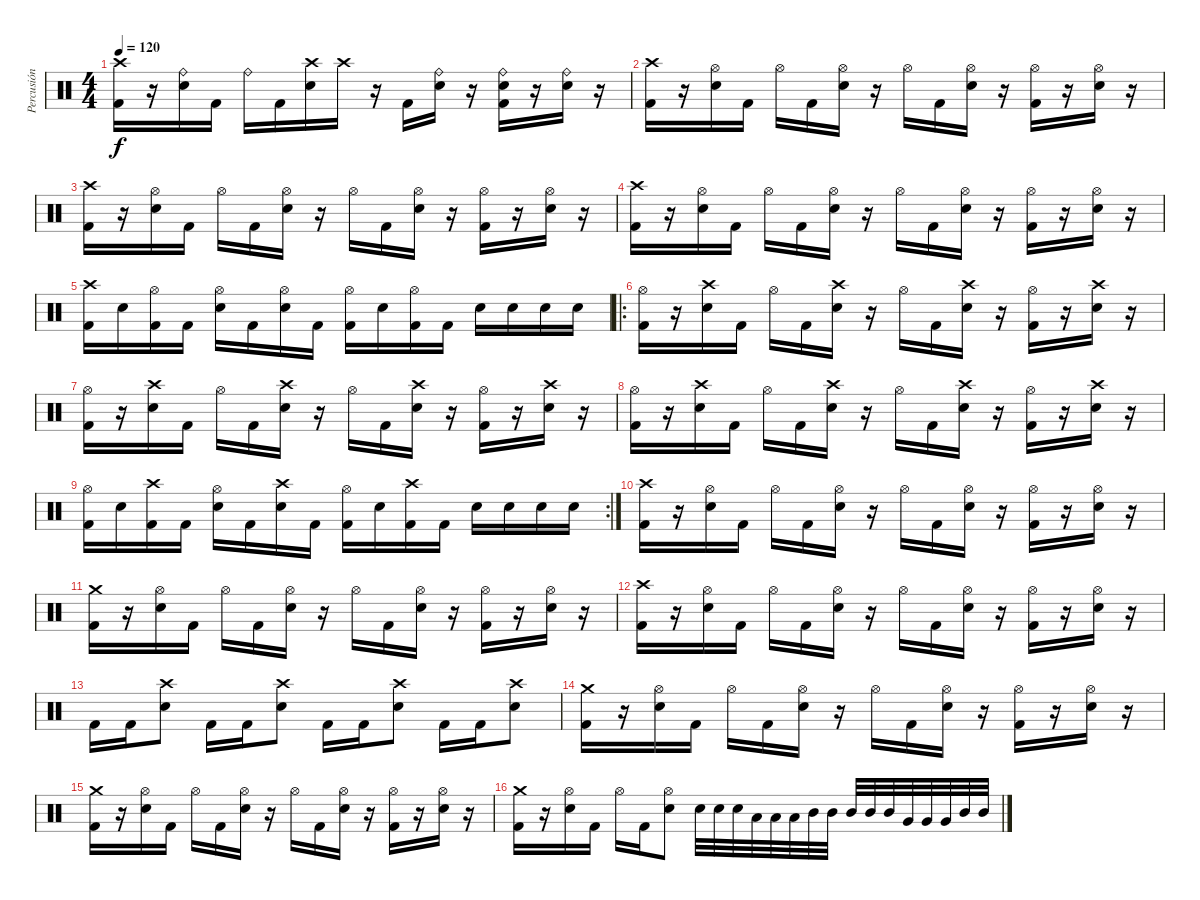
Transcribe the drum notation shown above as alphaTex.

\track ("Percusión" "Percusión") {instrument percussion}
\staff {score}
\articulation defaults
\ts (4 4)
\tempo 120
\clef neutral
\ks c
("Crash high (hit)" "Kick (hit) 2").16{dy f} r.16 ("Ride (bell)" "Electric Snare (hit)").16 "Kick (hit) 2".16 "Ride (bell)".16 "Kick (hit) 2".16 ("Crash high (hit)" "Electric Snare (hit)").16 "Crash high (hit)".16 r.16 "Kick (hit) 2".16 ("Ride (bell)" "Electric Snare (hit)").16 r.16 ("Ride (bell)" "Electric Snare (hit)" "Kick (hit) 2").16 r.16 ("Ride (bell)" "Electric Snare (hit)").16 r.16 |
("Crash high (hit)" "Kick (hit) 2").16 r.16 ("Hi-Hat (open)" "Electric Snare (hit)").16 "Kick (hit) 2".16 "Hi-Hat (open)".16 "Kick (hit) 2".16 ("Hi-Hat (open)" "Electric Snare (hit)").16 r.16 "Hi-Hat (open)".16 "Kick (hit) 2".16 ("Hi-Hat (open)" "Electric Snare (hit)").16 r.16 ("Hi-Hat (open)" "Kick (hit) 2").16 r.16 ("Hi-Hat (open)" "Electric Snare (hit)").16 r.16 |
("Crash high (hit)" "Kick (hit) 2").16 r.16 ("Hi-Hat (open)" "Electric Snare (hit)").16 "Kick (hit) 2".16 "Hi-Hat (open)".16 "Kick (hit) 2".16 ("Hi-Hat (open)" "Electric Snare (hit)").16 r.16 "Hi-Hat (open)".16 "Kick (hit) 2".16 ("Hi-Hat (open)" "Electric Snare (hit)").16 r.16 ("Hi-Hat (open)" "Kick (hit) 2").16 r.16 ("Hi-Hat (open)" "Electric Snare (hit)").16 r.16 |
("Crash high (hit)" "Kick (hit) 2").16 r.16 ("Hi-Hat (open)" "Electric Snare (hit)").16 "Kick (hit) 2".16 "Hi-Hat (open)".16 "Kick (hit) 2".16 ("Hi-Hat (open)" "Electric Snare (hit)").16 r.16 "Hi-Hat (open)".16 "Kick (hit) 2".16 ("Hi-Hat (open)" "Electric Snare (hit)").16 r.16 ("Hi-Hat (open)" "Kick (hit) 2").16 r.16 ("Hi-Hat (open)" "Electric Snare (hit)").16 r.16 |
("Crash high (hit)" "Kick (hit) 2").16 "Electric Snare (hit)".16 ("Hi-Hat (open)" "Kick (hit) 2").16 "Kick (hit) 2".16 ("Hi-Hat (open)" "Electric Snare (hit)").16 "Kick (hit) 2".16 ("Hi-Hat (open)" "Electric Snare (hit)").16 "Kick (hit) 2".16 ("Hi-Hat (open)" "Kick (hit) 2").16 "Electric Snare (hit)".16 ("Hi-Hat (open)" "Kick (hit) 2").16 "Kick (hit) 2".16 "Electric Snare (hit)".16 "Electric Snare (hit)".16 "Electric Snare (hit)".16 "Electric Snare (hit)".16 |
\ro
("Hi-Hat (open)" "Kick (hit) 2").16 r.16 ("Crash high (hit)" "Electric Snare (hit)").16 "Kick (hit) 2".16 "Hi-Hat (open)".16 "Kick (hit) 2".16 ("Crash high (hit)" "Electric Snare (hit)").16 r.16 "Hi-Hat (open)".16 "Kick (hit) 2".16 ("Crash high (hit)" "Electric Snare (hit)").16 r.16 ("Hi-Hat (open)" "Kick (hit) 2").16 r.16 ("Crash high (hit)" "Electric Snare (hit)").16 r.16 |
("Hi-Hat (open)" "Kick (hit) 2").16 r.16 ("Crash high (hit)" "Electric Snare (hit)").16 "Kick (hit) 2".16 "Hi-Hat (open)".16 "Kick (hit) 2".16 ("Crash high (hit)" "Electric Snare (hit)").16 r.16 "Hi-Hat (open)".16 "Kick (hit) 2".16 ("Crash high (hit)" "Electric Snare (hit)").16 r.16 ("Hi-Hat (open)" "Kick (hit) 2").16 r.16 ("Crash high (hit)" "Electric Snare (hit)").16 r.16 |
("Hi-Hat (open)" "Kick (hit) 2").16 r.16 ("Crash high (hit)" "Electric Snare (hit)").16 "Kick (hit) 2".16 "Hi-Hat (open)".16 "Kick (hit) 2".16 ("Crash high (hit)" "Electric Snare (hit)").16 r.16 "Hi-Hat (open)".16 "Kick (hit) 2".16 ("Crash high (hit)" "Electric Snare (hit)").16 r.16 ("Hi-Hat (open)" "Kick (hit) 2").16 r.16 ("Crash high (hit)" "Electric Snare (hit)").16 r.16 |
\rc 2
("Hi-Hat (open)" "Kick (hit) 2").16 "Electric Snare (hit)".16 ("Crash high (hit)" "Kick (hit) 2").16 "Kick (hit) 2".16 ("Hi-Hat (open)" "Electric Snare (hit)").16 "Kick (hit) 2".16 ("Crash high (hit)" "Electric Snare (hit)").16 "Kick (hit) 2".16 ("Hi-Hat (open)" "Kick (hit) 2").16 "Electric Snare (hit)".16 ("Crash high (hit)" "Kick (hit) 2").16 "Kick (hit) 2".16 "Electric Snare (hit)".16 "Electric Snare (hit)".16 "Electric Snare (hit)".16 "Electric Snare (hit)".16 |
("Crash high (hit)" "Kick (hit) 2").16 r.16 ("Hi-Hat (open)" "Electric Snare (hit)").16 "Kick (hit) 2".16 "Hi-Hat (open)".16 "Kick (hit) 2".16 ("Hi-Hat (open)" "Electric Snare (hit)").16 r.16 "Hi-Hat (open)".16 "Kick (hit) 2".16 ("Hi-Hat (open)" "Electric Snare (hit)").16 r.16 ("Hi-Hat (open)" "Kick (hit) 2").16 r.16 ("Hi-Hat (open)" "Electric Snare (hit)").16 r.16 |
("Crash medium (hit)" "Kick (hit) 2").16 r.16 ("Hi-Hat (open)" "Electric Snare (hit)").16 "Kick (hit) 2".16 "Hi-Hat (open)".16 "Kick (hit) 2".16 ("Hi-Hat (open)" "Electric Snare (hit)").16 r.16 "Hi-Hat (open)".16 "Kick (hit) 2".16 ("Hi-Hat (open)" "Electric Snare (hit)").16 r.16 ("Hi-Hat (open)" "Kick (hit) 2").16 r.16 ("Hi-Hat (open)" "Electric Snare (hit)").16 r.16 |
("Crash high (hit)" "Kick (hit) 2").16 r.16 ("Hi-Hat (open)" "Electric Snare (hit)").16 "Kick (hit) 2".16 "Hi-Hat (open)".16 "Kick (hit) 2".16 ("Hi-Hat (open)" "Electric Snare (hit)").16 r.16 "Hi-Hat (open)".16 "Kick (hit) 2".16 ("Hi-Hat (open)" "Electric Snare (hit)").16 r.16 ("Hi-Hat (open)" "Kick (hit) 2").16 r.16 ("Hi-Hat (open)" "Electric Snare (hit)").16 r.16 |
"Kick (hit) 2".16 "Kick (hit) 2".16 ("Crash high (hit)" "Electric Snare (hit)").8 "Kick (hit) 2".16 "Kick (hit) 2".16 ("Crash high (hit)" "Electric Snare (hit)").8 "Kick (hit) 2".16 "Kick (hit) 2".16 ("Crash high (hit)" "Electric Snare (hit)").8 "Kick (hit) 2".16 "Kick (hit) 2".16 ("Crash high (hit)" "Electric Snare (hit)").8 |
("Crash medium (hit)" "Kick (hit) 2").16 r.16 ("Hi-Hat (open)" "Electric Snare (hit)").16 "Kick (hit) 2".16 "Hi-Hat (open)".16 "Kick (hit) 2".16 ("Hi-Hat (open)" "Electric Snare (hit)").16 r.16 "Hi-Hat (open)".16 "Kick (hit) 2".16 ("Hi-Hat (open)" "Electric Snare (hit)").16 r.16 ("Hi-Hat (open)" "Kick (hit) 2").16 r.16 ("Hi-Hat (open)" "Electric Snare (hit)").16 r.16 |
("Crash medium (hit)" "Kick (hit) 2").16 r.16 ("Hi-Hat (open)" "Electric Snare (hit)").16 "Kick (hit) 2".16 "Hi-Hat (open)".16 "Kick (hit) 2".16 ("Hi-Hat (open)" "Electric Snare (hit)").16 r.16 "Hi-Hat (open)".16 "Kick (hit) 2".16 ("Hi-Hat (open)" "Electric Snare (hit)").16 r.16 ("Hi-Hat (open)" "Kick (hit) 2").16 r.16 ("Hi-Hat (open)" "Electric Snare (hit)").16 r.16 |
("Crash medium (hit)" "Kick (hit) 2").16 r.16 ("Hi-Hat (open)" "Electric Snare (hit)").16 "Kick (hit) 2".16 "Hi-Hat (open)".16 "Kick (hit) 2".16 ("Hi-Hat (open)" "Electric Snare (hit)").8 "Electric Snare (hit)".32 "Electric Snare (hit)".32 "Electric Snare (hit)".32 "Low Tom (hit)".32 "Low Tom (hit)".32 "Low Tom (hit)".32 "Mid Tom (hit)".32 "Mid Tom (hit)".32 "Mid Tom (hit)".32 "Mid Tom (hit)".32 "Mid Tom (hit)".32 "Very Low Tom (hit)".32 "Very Low Tom (hit)".32 "Very Low Tom (hit)".32 "Mid Tom (hit)".32 "Mid Tom (hit)".32
